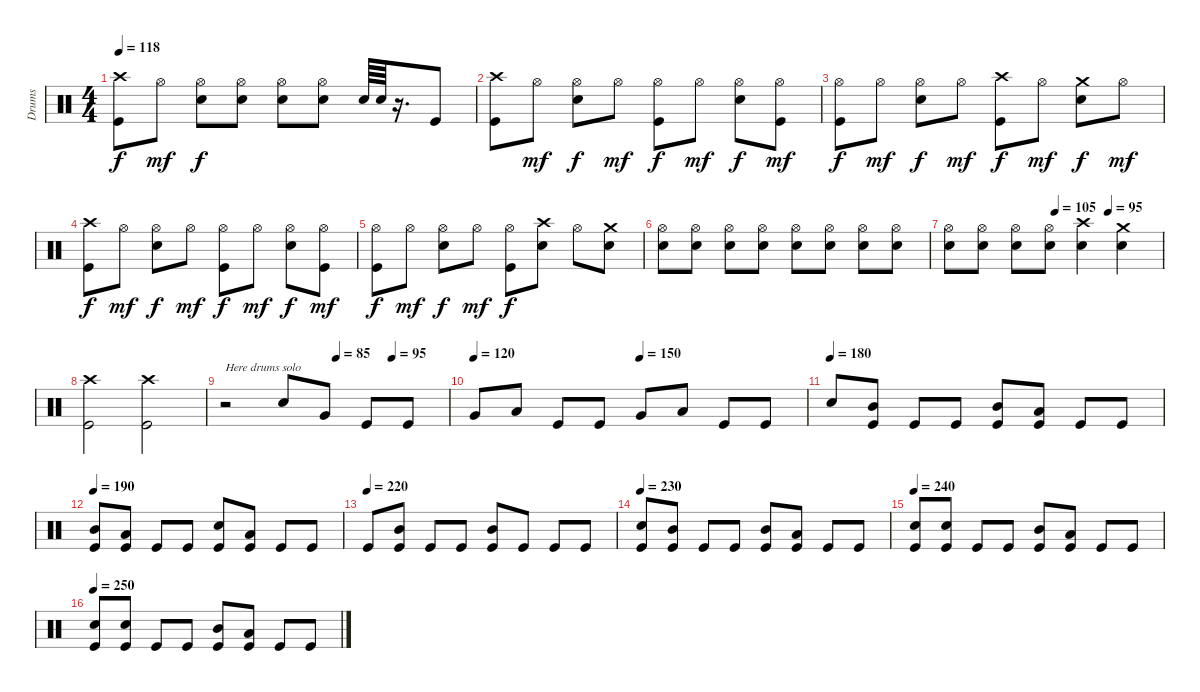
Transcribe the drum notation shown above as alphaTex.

\track ("Drums" "Drums") {instrument percussion}
\staff {score}
\articulation defaults
\ts (4 4)
\tempo 118
\clef neutral
\ks c
("Crash high (hit)" "Kick (hit)").8{dy f} "Hi-Hat (open)".8{dy mf} ("Hi-Hat (open)" "Snare (hit) 2").8{dy f} ("Hi-Hat (open)" "Snare (hit) 2").8 ("Hi-Hat (open)" "Snare (hit) 2").8 ("Hi-Hat (open)" "Snare (hit) 2").8 "Snare (hit) 2".64 "Snare (hit) 2".64 r.16{d} "Kick (hit)".8 |
("Kick (hit)" "Crash high (hit)").8 "Hi-Hat (open)".8{dy mf} ("Hi-Hat (open)" "Snare (hit) 2").8{dy f} "Hi-Hat (open)".8{dy mf} ("Hi-Hat (open)" "Kick (hit)").8{dy f} "Hi-Hat (open)".8{dy mf} ("Hi-Hat (open)" "Snare (hit) 2").8{dy f} ("Hi-Hat (open)" "Kick (hit)").8{dy mf} |
("Hi-Hat (open)" "Kick (hit)").8{dy f} "Hi-Hat (open)".8{dy mf} ("Hi-Hat (open)" "Snare (hit) 2").8{dy f} "Hi-Hat (open)".8{dy mf} ("Kick (hit)" "Crash high (hit)").8{dy f} "Hi-Hat (open)".8{dy mf} ("Snare (hit) 2" "Crash medium (hit)").8{dy f} "Hi-Hat (open)".8{dy mf} |
("Crash high (hit)" "Kick (hit)").8{dy f} "Hi-Hat (open)".8{dy mf} ("Hi-Hat (open)" "Snare (hit) 2").8{dy f} "Hi-Hat (open)".8{dy mf} ("Hi-Hat (open)" "Kick (hit)").8{dy f} "Hi-Hat (open)".8{dy mf} ("Hi-Hat (open)" "Snare (hit) 2").8{dy f} ("Hi-Hat (open)" "Kick (hit)").8{dy mf} |
("Hi-Hat (open)" "Kick (hit)").8{dy f} "Hi-Hat (open)".8{dy mf} ("Hi-Hat (open)" "Snare (hit) 2").8{dy f} "Hi-Hat (open)".8{dy mf} ("Hi-Hat (open)" "Kick (hit)").8{dy f} ("Snare (hit) 2" "Crash high (hit)").8 "Hi-Hat (open)".8 ("Snare (hit) 2" "Crash medium (hit)").8 |
("Hi-Hat (open)" "Snare (hit) 2").8 ("Hi-Hat (open)" "Snare (hit) 2").8 ("Hi-Hat (open)" "Snare (hit) 2").8 ("Hi-Hat (open)" "Snare (hit) 2").8 ("Hi-Hat (open)" "Snare (hit) 2").8 ("Hi-Hat (open)" "Snare (hit) 2").8 ("Hi-Hat (open)" "Snare (hit) 2").8 ("Hi-Hat (open)" "Snare (hit) 2").8 |
\tempo (105 0.5)
\tempo (95 0.75)
("Hi-Hat (open)" "Snare (hit) 2").8 ("Hi-Hat (open)" "Snare (hit) 2").8 ("Hi-Hat (open)" "Snare (hit) 2").8 ("Hi-Hat (open)" "Snare (hit) 2").8 ("Crash high (hit)" "Snare (hit) 2").4 ("Crash medium (hit)" "Snare (hit) 2").4 |
("Crash high (hit)" "Kick (hit)").2 ("Crash high (hit)" "Kick (hit)").2 |
\tempo (85 0.5)
\tempo (95 0.75)
r.2{txt "Here drums solo"} "Snare (hit) 2".8 "Very Low Tom (hit)".8 "Kick (hit)".8 "Kick (hit)".8 |
\tempo 120
\tempo (150 0.5)
"Very Low Tom (hit)".8 "Low Tom (hit)".8 "Kick (hit)".8 "Kick (hit)".8 "Very Low Tom (hit)".8 "Low Tom (hit)".8 "Kick (hit)".8 "Kick (hit)".8 |
\tempo (180)
"Snare (hit) 2".8 ("Kick (hit)" "Mid Tom (hit)").8 "Kick (hit)".8 "Kick (hit)".8 ("Kick (hit)" "Mid Tom (hit)").8 ("Kick (hit)" "Low Tom (hit)").8 "Kick (hit)".8 "Kick (hit)".8 |
\tempo 190
("Kick (hit)" "Mid Tom (hit)").8 ("Kick (hit)" "Low Tom (hit)").8 "Kick (hit)".8 "Kick (hit)".8 ("Kick (hit)" "Snare (hit) 2").8 ("Kick (hit)" "Low Tom (hit)").8 "Kick (hit)".8 "Kick (hit)".8 |
\tempo (220)
"Kick (hit)".8 ("Kick (hit)" "Mid Tom (hit)").8 "Kick (hit)".8 "Kick (hit)".8 ("Kick (hit)" "Mid Tom (hit)").8 "Kick (hit)".8 "Kick (hit)".8 "Kick (hit)".8 |
\tempo 230
("Kick (hit)" "Snare (hit) 2").8 ("Kick (hit)" "Mid Tom (hit)").8 "Kick (hit)".8 "Kick (hit)".8 ("Kick (hit)" "Mid Tom (hit)").8 ("Kick (hit)" "Low Tom (hit)").8 "Kick (hit)".8 "Kick (hit)".8 |
\tempo 240
("Kick (hit)" "Snare (hit) 2").8 ("Kick (hit)" "Snare (hit) 2").8 "Kick (hit)".8 "Kick (hit)".8 ("Kick (hit)" "Mid Tom (hit)").8 ("Kick (hit)" "Low Tom (hit)").8 "Kick (hit)".8 "Kick (hit)".8 |
\tempo 250
("Kick (hit)" "Snare (hit) 2").8 ("Kick (hit)" "Snare (hit) 2").8 "Kick (hit)".8 "Kick (hit)".8 ("Kick (hit)" "Mid Tom (hit)").8 ("Kick (hit)" "Low Tom (hit)").8 "Kick (hit)".8 "Kick (hit)".8
